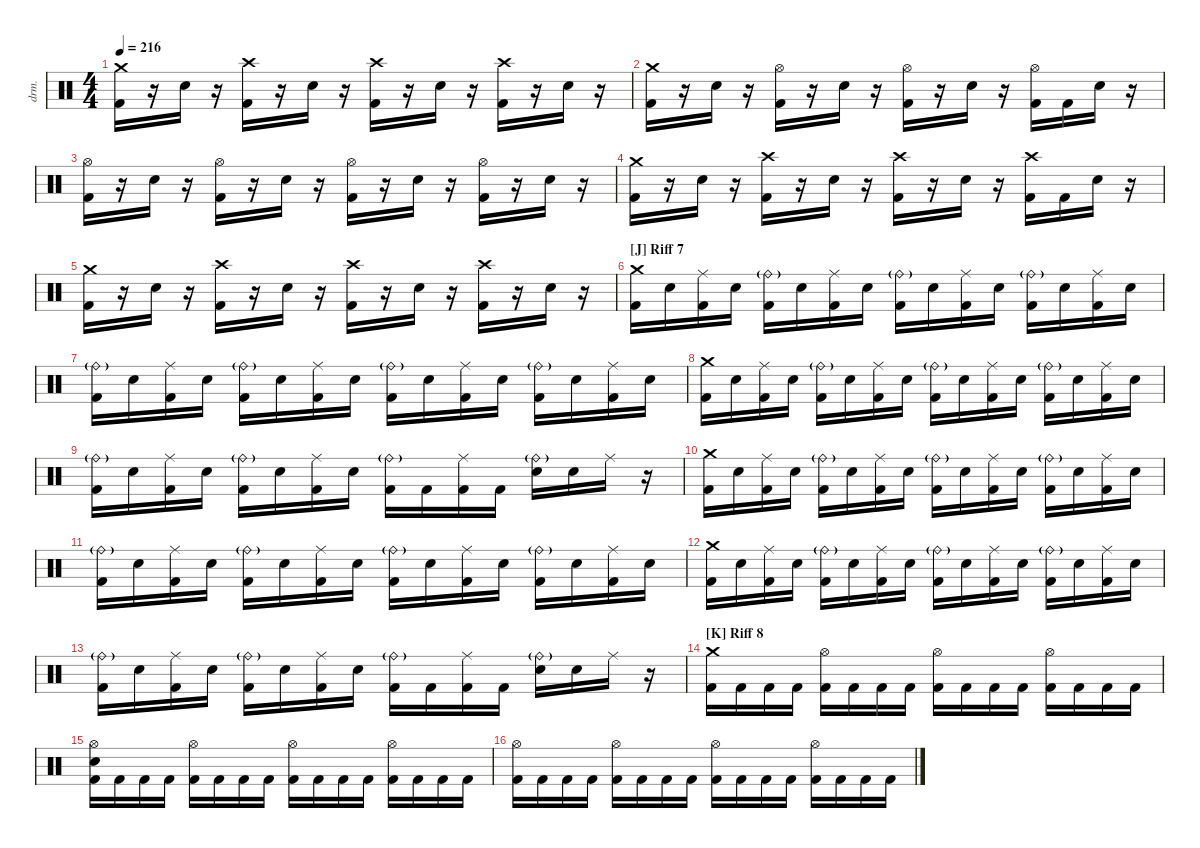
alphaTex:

\hideDynamics
\bracketExtendMode nobrackets
\track ("Drums" "drm.") {instrument percussion}
\staff {score}
\articulation defaults
\ts (4 4)
\tempo 216
\clef neutral
\ks c
("Kick (hit) 2" "Crash medium (hit)").16{dy mf beam Down} r.16{beam Down} "Snare (hit) 2".16{beam Down} r.16{beam Down} ("Kick (hit) 2" "Crash high (hit)").16{beam Down} r.16{beam Down} "Snare (hit) 2".16{beam Down} r.16{beam Down} ("Kick (hit) 2" "Crash high (hit)").16{beam Down} r.16{beam Down} "Snare (hit) 2".16{beam Down} r.16{beam Down} ("Kick (hit) 2" "Crash high (hit)").16{beam Down} r.16{beam Down} "Snare (hit) 2".16{beam Down} r.16{beam Down} |
("Kick (hit) 2" "Crash medium (hit)").16{beam Down} r.16{beam Down} "Snare (hit) 2".16{beam Down} r.16{beam Down} ("Kick (hit) 2" "Hi-Hat (open)").16{beam Down} r.16{beam Down} "Snare (hit) 2".16{beam Down} r.16{beam Down} ("Kick (hit) 2" "Hi-Hat (open)").16{beam Down} r.16{beam Down} "Snare (hit) 2".16{beam Down} r.16{beam Down} ("Kick (hit) 2" "Hi-Hat (open)").16{beam Down} "Kick (hit) 2".16{beam Down} "Snare (hit) 2".16{beam Down} r.16{beam Down} |
("Kick (hit) 2" "Hi-Hat (open)").16{beam Down} r.16{beam Down} "Snare (hit) 2".16{beam Down} r.16{beam Down} ("Kick (hit) 2" "Hi-Hat (open)").16{beam Down} r.16{beam Down} "Snare (hit) 2".16{beam Down} r.16{beam Down} ("Kick (hit) 2" "Hi-Hat (open)").16{beam Down} r.16{beam Down} "Snare (hit) 2".16{beam Down} r.16{beam Down} ("Kick (hit) 2" "Hi-Hat (open)").16{beam Down} r.16{beam Down} "Snare (hit) 2".16{beam Down} r.16{beam Down} |
("Kick (hit) 2" "Crash medium (hit)").16{beam Down} r.16{beam Down} "Snare (hit) 2".16{beam Down} r.16{beam Down} ("Kick (hit) 2" "Crash high (hit)").16{beam Down} r.16{beam Down} "Snare (hit) 2".16{beam Down} r.16{beam Down} ("Kick (hit) 2" "Crash high (hit)").16{beam Down} r.16{beam Down} "Snare (hit) 2".16{beam Down} r.16{beam Down} ("Kick (hit) 2" "Crash high (hit)").16{beam Down} "Kick (hit) 2".16{beam Down} "Snare (hit) 2".16{beam Down} r.16{beam Down} |
("Kick (hit) 2" "Crash medium (hit)").16{beam Down} r.16{beam Down} "Snare (hit) 2".16{beam Down} r.16{beam Down} ("Kick (hit) 2" "Crash high (hit)").16{beam Down} r.16{beam Down} "Snare (hit) 2".16{beam Down} r.16{beam Down} ("Kick (hit) 2" "Crash high (hit)").16{beam Down} r.16{beam Down} "Snare (hit) 2".16{beam Down} r.16{beam Down} ("Kick (hit) 2" "Crash high (hit)").16{beam Down} r.16{beam Down} "Snare (hit) 2".16{beam Down} r.16{beam Down} |
\section ("J" "Riff 7")
("Kick (hit) 2" "Crash medium (hit)").16{beam Down} "Snare (hit) 2".16{beam Down} ("Kick (hit) 2" "Ride (middle)").16{beam Down} "Snare (hit) 2".16{beam Down} ("Kick (hit) 2" "Ride (bell)"{g}).16{beam Down} "Snare (hit) 2".16{beam Down} ("Kick (hit) 2" "Ride (middle)").16{beam Down} "Snare (hit) 2".16{beam Down} ("Kick (hit) 2" "Ride (bell)"{g}).16{beam Down} "Snare (hit) 2".16{beam Down} ("Kick (hit) 2" "Ride (middle)").16{beam Down} "Snare (hit) 2".16{beam Down} ("Kick (hit) 2" "Ride (bell)"{g}).16{beam Down} "Snare (hit) 2".16{beam Down} ("Kick (hit) 2" "Ride (middle)").16{beam Down} "Snare (hit) 2".16{beam Down} |
("Kick (hit) 2" "Ride (bell)"{g}).16{beam Down} "Snare (hit) 2".16{beam Down} ("Kick (hit) 2" "Ride (middle)").16{beam Down} "Snare (hit) 2".16{beam Down} ("Kick (hit) 2" "Ride (bell)"{g}).16{beam Down} "Snare (hit) 2".16{beam Down} ("Kick (hit) 2" "Ride (middle)").16{beam Down} "Snare (hit) 2".16{beam Down} ("Kick (hit) 2" "Ride (bell)"{g}).16{beam Down} "Snare (hit) 2".16{beam Down} ("Kick (hit) 2" "Ride (middle)").16{beam Down} "Snare (hit) 2".16{beam Down} ("Kick (hit) 2" "Ride (bell)"{g}).16{beam Down} "Snare (hit) 2".16{beam Down} ("Kick (hit) 2" "Ride (middle)").16{beam Down} "Snare (hit) 2".16{beam Down} |
("Kick (hit) 2" "Crash medium (hit)").16{beam Down} "Snare (hit) 2".16{beam Down} ("Kick (hit) 2" "Ride (middle)").16{beam Down} "Snare (hit) 2".16{beam Down} ("Kick (hit) 2" "Ride (bell)"{g}).16{beam Down} "Snare (hit) 2".16{beam Down} ("Kick (hit) 2" "Ride (middle)").16{beam Down} "Snare (hit) 2".16{beam Down} ("Kick (hit) 2" "Ride (bell)"{g}).16{beam Down} "Snare (hit) 2".16{beam Down} ("Kick (hit) 2" "Ride (middle)").16{beam Down} "Snare (hit) 2".16{beam Down} ("Kick (hit) 2" "Ride (bell)"{g}).16{beam Down} "Snare (hit) 2".16{beam Down} ("Kick (hit) 2" "Ride (middle)").16{beam Down} "Snare (hit) 2".16{beam Down} |
("Kick (hit) 2" "Ride (bell)"{g}).16{beam Down} "Snare (hit) 2".16{beam Down} ("Kick (hit) 2" "Ride (middle)").16{beam Down} "Snare (hit) 2".16{beam Down} ("Kick (hit) 2" "Ride (bell)"{g}).16{beam Down} "Snare (hit) 2".16{beam Down} ("Kick (hit) 2" "Ride (middle)").16{beam Down} "Snare (hit) 2".16{beam Down} ("Kick (hit) 2" "Ride (bell)"{g}).16{beam Down} "Kick (hit) 2".16{beam Down} ("Kick (hit) 2" "Ride (middle)").16{beam Down} "Kick (hit) 2".16{beam Down} ("Ride (bell)"{g} "Snare (hit) 2").16{beam Down} "Snare (hit) 2".16{beam Down} "Ride (middle)".16{beam Down} r.16{beam Down} |
("Kick (hit) 2" "Crash medium (hit)").16{beam Down} "Snare (hit) 2".16{beam Down} ("Kick (hit) 2" "Ride (middle)").16{beam Down} "Snare (hit) 2".16{beam Down} ("Kick (hit) 2" "Ride (bell)"{g}).16{beam Down} "Snare (hit) 2".16{beam Down} ("Kick (hit) 2" "Ride (middle)").16{beam Down} "Snare (hit) 2".16{beam Down} ("Kick (hit) 2" "Ride (bell)"{g}).16{beam Down} "Snare (hit) 2".16{beam Down} ("Kick (hit) 2" "Ride (middle)").16{beam Down} "Snare (hit) 2".16{beam Down} ("Kick (hit) 2" "Ride (bell)"{g}).16{beam Down} "Snare (hit) 2".16{beam Down} ("Kick (hit) 2" "Ride (middle)").16{beam Down} "Snare (hit) 2".16{beam Down} |
("Kick (hit) 2" "Ride (bell)"{g}).16{beam Down} "Snare (hit) 2".16{beam Down} ("Kick (hit) 2" "Ride (middle)").16{beam Down} "Snare (hit) 2".16{beam Down} ("Kick (hit) 2" "Ride (bell)"{g}).16{beam Down} "Snare (hit) 2".16{beam Down} ("Kick (hit) 2" "Ride (middle)").16{beam Down} "Snare (hit) 2".16{beam Down} ("Kick (hit) 2" "Ride (bell)"{g}).16{beam Down} "Snare (hit) 2".16{beam Down} ("Kick (hit) 2" "Ride (middle)").16{beam Down} "Snare (hit) 2".16{beam Down} ("Kick (hit) 2" "Ride (bell)"{g}).16{beam Down} "Snare (hit) 2".16{beam Down} ("Kick (hit) 2" "Ride (middle)").16{beam Down} "Snare (hit) 2".16{beam Down} |
("Kick (hit) 2" "Crash medium (hit)").16{beam Down} "Snare (hit) 2".16{beam Down} ("Kick (hit) 2" "Ride (middle)").16{beam Down} "Snare (hit) 2".16{beam Down} ("Kick (hit) 2" "Ride (bell)"{g}).16{beam Down} "Snare (hit) 2".16{beam Down} ("Kick (hit) 2" "Ride (middle)").16{beam Down} "Snare (hit) 2".16{beam Down} ("Kick (hit) 2" "Ride (bell)"{g}).16{beam Down} "Snare (hit) 2".16{beam Down} ("Kick (hit) 2" "Ride (middle)").16{beam Down} "Snare (hit) 2".16{beam Down} ("Kick (hit) 2" "Ride (bell)"{g}).16{beam Down} "Snare (hit) 2".16{beam Down} ("Kick (hit) 2" "Ride (middle)").16{beam Down} "Snare (hit) 2".16{beam Down} |
("Kick (hit) 2" "Ride (bell)"{g}).16{beam Down} "Snare (hit) 2".16{beam Down} ("Kick (hit) 2" "Ride (middle)").16{beam Down} "Snare (hit) 2".16{beam Down} ("Kick (hit) 2" "Ride (bell)"{g}).16{beam Down} "Snare (hit) 2".16{beam Down} ("Kick (hit) 2" "Ride (middle)").16{beam Down} "Snare (hit) 2".16{beam Down} ("Kick (hit) 2" "Ride (bell)"{g}).16{beam Down} "Kick (hit) 2".16{beam Down} ("Kick (hit) 2" "Ride (middle)").16{beam Down} "Kick (hit) 2".16{beam Down} ("Ride (bell)"{g} "Snare (hit) 2").16{beam Down} "Snare (hit) 2".16{beam Down} "Ride (middle)".16{beam Down} r.16{beam Down} |
\section ("K" "Riff 8")
("Kick (hit) 2" "Crash medium (hit)").16{beam Down} "Kick (hit) 2".16{beam Down} "Kick (hit) 2".16{beam Down} "Kick (hit) 2".16{beam Down} ("Kick (hit) 2" "Hi-Hat (open)").16{beam Down} "Kick (hit) 2".16{beam Down} "Kick (hit) 2".16{beam Down} "Kick (hit) 2".16{beam Down} ("Kick (hit) 2" "Hi-Hat (open)").16{beam Down} "Kick (hit) 2".16{beam Down} "Kick (hit) 2".16{beam Down} "Kick (hit) 2".16{beam Down} ("Kick (hit) 2" "Hi-Hat (open)").16{beam Down} "Kick (hit) 2".16{beam Down} "Kick (hit) 2".16{beam Down} "Kick (hit) 2".16{beam Down} |
("Kick (hit) 2" "Hi-Hat (open)" "Snare (hit) 2").16{beam Down} "Kick (hit) 2".16{beam Down} "Kick (hit) 2".16{beam Down} "Kick (hit) 2".16{beam Down} ("Kick (hit) 2" "Hi-Hat (open)").16{beam Down} "Kick (hit) 2".16{beam Down} "Kick (hit) 2".16{beam Down} "Kick (hit) 2".16{beam Down} ("Kick (hit) 2" "Hi-Hat (open)").16{beam Down} "Kick (hit) 2".16{beam Down} "Kick (hit) 2".16{beam Down} "Kick (hit) 2".16{beam Down} ("Kick (hit) 2" "Hi-Hat (open)").16{beam Down} "Kick (hit) 2".16{beam Down} "Kick (hit) 2".16{beam Down} "Kick (hit) 2".16{beam Down} |
("Kick (hit) 2" "Hi-Hat (open)").16{beam Down} "Kick (hit) 2".16{beam Down} "Kick (hit) 2".16{beam Down} "Kick (hit) 2".16{beam Down} ("Kick (hit) 2" "Hi-Hat (open)").16{beam Down} "Kick (hit) 2".16{beam Down} "Kick (hit) 2".16{beam Down} "Kick (hit) 2".16{beam Down} ("Kick (hit) 2" "Hi-Hat (open)").16{beam Down} "Kick (hit) 2".16{beam Down} "Kick (hit) 2".16{beam Down} "Kick (hit) 2".16{beam Down} ("Kick (hit) 2" "Hi-Hat (open)").16{beam Down} "Kick (hit) 2".16{beam Down} "Kick (hit) 2".16{beam Down} "Kick (hit) 2".16{beam Down}
